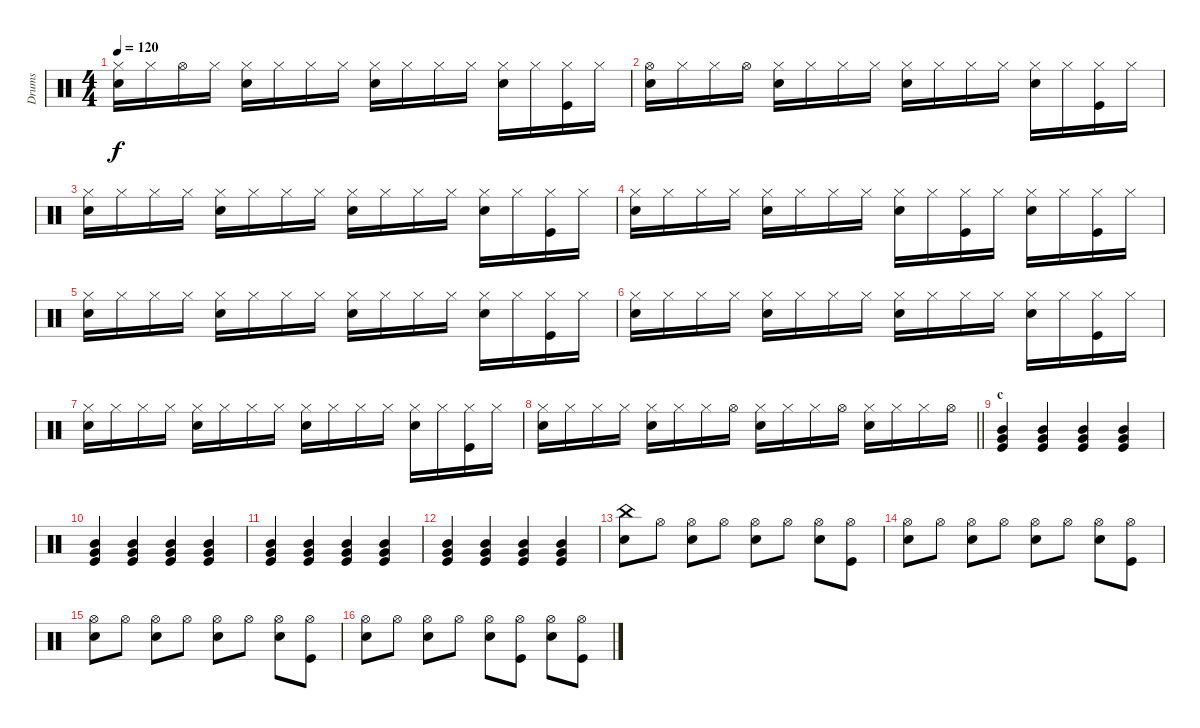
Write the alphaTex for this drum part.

\track ("Drums" "Drums") {instrument percussion}
\staff {score}
\articulation defaults
\ts (4 4)
\tempo 120
\clef neutral
\ks c
("Snare (hit) 2" "Hi-Hat (closed)").16{dy f} "Hi-Hat (closed)".16 "Hi-Hat (open)".16 "Hi-Hat (closed)".16 ("Snare (hit) 2" "Hi-Hat (closed)").16 "Hi-Hat (closed)".16 "Hi-Hat (closed)".16 "Hi-Hat (closed)".16 ("Snare (hit) 2" "Hi-Hat (closed)").16 "Hi-Hat (closed)".16 "Hi-Hat (closed)".16 "Hi-Hat (closed)".16 ("Snare (hit) 2" "Hi-Hat (closed)").16 "Hi-Hat (closed)".16 ("Kick (hit)" "Hi-Hat (closed)").16 "Hi-Hat (closed)".16 |
("Snare (hit) 2" "Hi-Hat (open)").16 "Hi-Hat (closed)".16 "Hi-Hat (closed)".16 "Hi-Hat (open)".16 ("Snare (hit) 2" "Hi-Hat (closed)").16 "Hi-Hat (closed)".16 "Hi-Hat (closed)".16 "Hi-Hat (closed)".16 ("Snare (hit) 2" "Hi-Hat (closed)").16 "Hi-Hat (closed)".16 "Hi-Hat (closed)".16 "Hi-Hat (closed)".16 ("Snare (hit) 2" "Hi-Hat (closed)").16 "Hi-Hat (closed)".16 ("Kick (hit)" "Hi-Hat (closed)").16 "Hi-Hat (closed)".16 |
("Snare (hit) 2" "Hi-Hat (closed)").16 "Hi-Hat (closed)".16 "Hi-Hat (closed)".16 "Hi-Hat (closed)".16 ("Snare (hit) 2" "Hi-Hat (closed)").16 "Hi-Hat (closed)".16 "Hi-Hat (closed)".16 "Hi-Hat (closed)".16 ("Snare (hit) 2" "Hi-Hat (closed)").16 "Hi-Hat (closed)".16 "Hi-Hat (closed)".16 "Hi-Hat (closed)".16 ("Snare (hit) 2" "Hi-Hat (closed)").16 "Hi-Hat (closed)".16 ("Kick (hit)" "Hi-Hat (closed)").16 "Hi-Hat (closed)".16 |
("Snare (hit) 2" "Hi-Hat (closed)").16 "Hi-Hat (closed)".16 "Hi-Hat (closed)".16 "Hi-Hat (closed)".16 ("Snare (hit) 2" "Hi-Hat (closed)").16 "Hi-Hat (closed)".16 "Hi-Hat (closed)".16 "Hi-Hat (closed)".16 ("Snare (hit) 2" "Hi-Hat (closed)").16 "Hi-Hat (closed)".16 ("Kick (hit)" "Hi-Hat (closed)").16 "Hi-Hat (closed)".16 ("Snare (hit) 2" "Hi-Hat (closed)").16 "Hi-Hat (closed)".16 ("Kick (hit)" "Hi-Hat (closed)").16 "Hi-Hat (closed)".16 |
("Snare (hit) 2" "Hi-Hat (closed)").16 "Hi-Hat (closed)".16 "Hi-Hat (closed)".16 "Hi-Hat (closed)".16 ("Snare (hit) 2" "Hi-Hat (closed)").16 "Hi-Hat (closed)".16 "Hi-Hat (closed)".16 "Hi-Hat (closed)".16 ("Snare (hit) 2" "Hi-Hat (closed)").16 "Hi-Hat (closed)".16 "Hi-Hat (closed)".16 "Hi-Hat (closed)".16 ("Snare (hit) 2" "Hi-Hat (closed)").16 "Hi-Hat (closed)".16 ("Kick (hit)" "Hi-Hat (closed)").16 "Hi-Hat (closed)".16 |
("Snare (hit) 2" "Hi-Hat (closed)").16 "Hi-Hat (closed)".16 "Hi-Hat (closed)".16 "Hi-Hat (closed)".16 ("Snare (hit) 2" "Hi-Hat (closed)").16 "Hi-Hat (closed)".16 "Hi-Hat (closed)".16 "Hi-Hat (closed)".16 ("Snare (hit) 2" "Hi-Hat (closed)").16 "Hi-Hat (closed)".16 "Hi-Hat (closed)".16 "Hi-Hat (closed)".16 ("Snare (hit) 2" "Hi-Hat (closed)").16 "Hi-Hat (closed)".16 ("Kick (hit)" "Hi-Hat (closed)").16 "Hi-Hat (closed)".16 |
("Snare (hit) 2" "Hi-Hat (closed)").16 "Hi-Hat (closed)".16 "Hi-Hat (closed)".16 "Hi-Hat (closed)".16 ("Snare (hit) 2" "Hi-Hat (closed)").16 "Hi-Hat (closed)".16 "Hi-Hat (closed)".16 "Hi-Hat (closed)".16 ("Snare (hit) 2" "Hi-Hat (closed)").16 "Hi-Hat (closed)".16 "Hi-Hat (closed)".16 "Hi-Hat (closed)".16 ("Snare (hit) 2" "Hi-Hat (closed)").16 "Hi-Hat (closed)".16 ("Kick (hit)" "Hi-Hat (closed)").16 "Hi-Hat (closed)".16 |
\barLineRight lightlight
("Snare (hit) 2" "Hi-Hat (closed)").16 "Hi-Hat (closed)".16 "Hi-Hat (closed)".16 "Hi-Hat (closed)".16 ("Snare (hit) 2" "Hi-Hat (closed)").16 "Hi-Hat (closed)".16 "Hi-Hat (closed)".16 "Hi-Hat (open)".16 ("Snare (hit) 2" "Hi-Hat (closed)").16 "Hi-Hat (closed)".16 "Hi-Hat (closed)".16 "Hi-Hat (open)".16 ("Snare (hit) 2" "Hi-Hat (closed)").16 "Hi-Hat (closed)".16 "Hi-Hat (closed)".16 "Hi-Hat (open)".16 |
\section ("" "c")
("Very Low Tom (hit)" "Kick (hit)" "Mid Tom (hit)").4 ("Very Low Tom (hit)" "Kick (hit)" "Mid Tom (hit)").4 ("Very Low Tom (hit)" "Kick (hit)" "Mid Tom (hit)").4 ("Very Low Tom (hit)" "Kick (hit)" "Mid Tom (hit)").4 |
("Very Low Tom (hit)" "Kick (hit)" "Mid Tom (hit)").4 ("Very Low Tom (hit)" "Kick (hit)" "Mid Tom (hit)").4 ("Very Low Tom (hit)" "Kick (hit)" "Mid Tom (hit)").4 ("Very Low Tom (hit)" "Kick (hit)" "Mid Tom (hit)").4 |
("Very Low Tom (hit)" "Kick (hit)" "Mid Tom (hit)").4 ("Very Low Tom (hit)" "Kick (hit)" "Mid Tom (hit)").4 ("Very Low Tom (hit)" "Kick (hit)" "Mid Tom (hit)").4 ("Very Low Tom (hit)" "Kick (hit)" "Mid Tom (hit)").4 |
("Very Low Tom (hit)" "Kick (hit)" "Mid Tom (hit)").4 ("Very Low Tom (hit)" "Kick (hit)" "Mid Tom (hit)").4 ("Very Low Tom (hit)" "Kick (hit)" "Mid Tom (hit)").4 ("Very Low Tom (hit)" "Kick (hit)" "Mid Tom (hit)").4 |
("Snare (hit) 2" "China (hit)").8 "Hi-Hat (open)".8 ("Snare (hit) 2" "Hi-Hat (open)").8 "Hi-Hat (open)".8 ("Snare (hit) 2" "Hi-Hat (open)").8 "Hi-Hat (open)".8 ("Snare (hit) 2" "Hi-Hat (open)").8 ("Kick (hit)" "Hi-Hat (open)").8 |
("Snare (hit) 2" "Hi-Hat (open)").8 "Hi-Hat (open)".8 ("Snare (hit) 2" "Hi-Hat (open)").8 "Hi-Hat (open)".8 ("Snare (hit) 2" "Hi-Hat (open)").8 "Hi-Hat (open)".8 ("Snare (hit) 2" "Hi-Hat (open)").8 ("Kick (hit)" "Hi-Hat (open)").8 |
("Snare (hit) 2" "Hi-Hat (open)").8 "Hi-Hat (open)".8 ("Snare (hit) 2" "Hi-Hat (open)").8 "Hi-Hat (open)".8 ("Snare (hit) 2" "Hi-Hat (open)").8 "Hi-Hat (open)".8 ("Snare (hit) 2" "Hi-Hat (open)").8 ("Kick (hit)" "Hi-Hat (open)").8 |
("Snare (hit) 2" "Hi-Hat (open)").8 "Hi-Hat (open)".8 ("Snare (hit) 2" "Hi-Hat (open)").8 "Hi-Hat (open)".8 ("Snare (hit) 2" "Hi-Hat (open)").8 ("Kick (hit)" "Hi-Hat (open)").8 ("Snare (hit) 2" "Hi-Hat (open)").8 ("Kick (hit)" "Hi-Hat (open)").8
